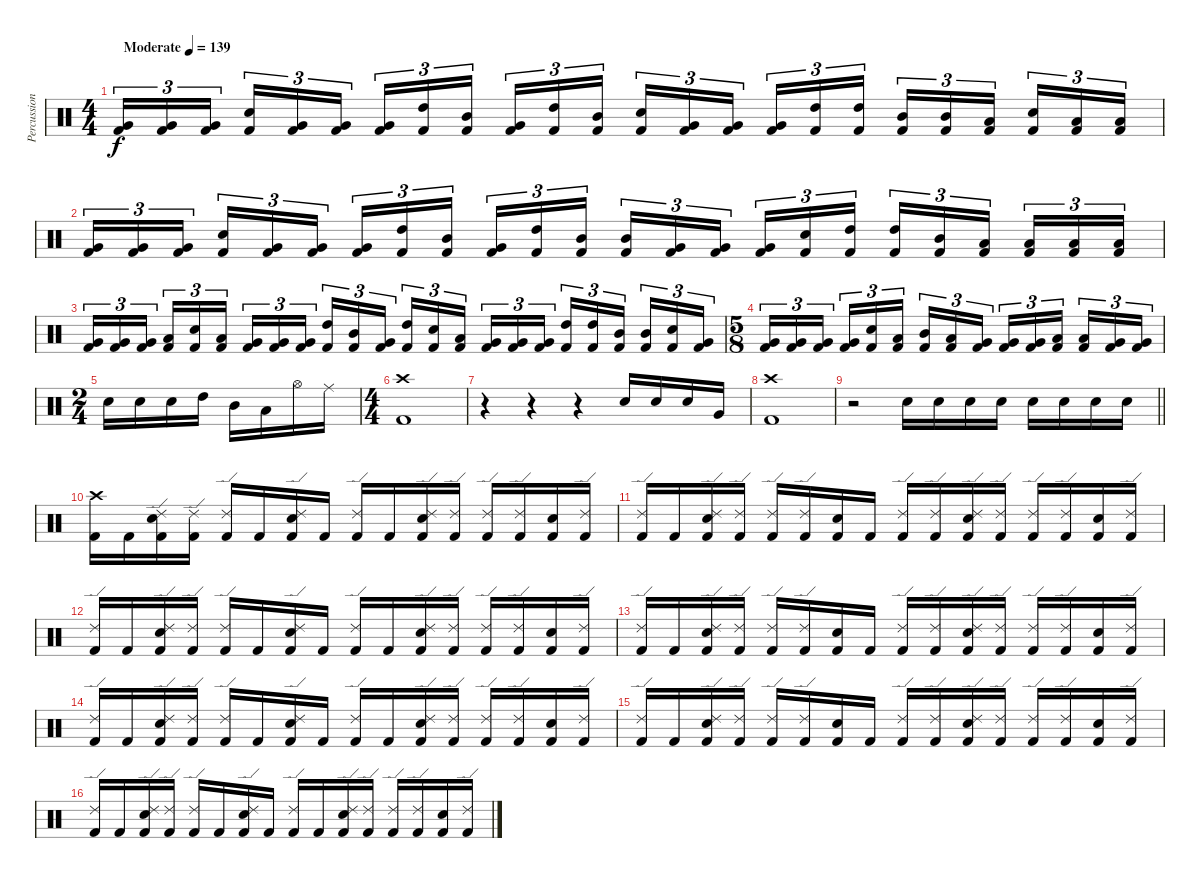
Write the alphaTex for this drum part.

\track ("Percussion" "Percussion") {instrument percussion}
\staff {score}
\articulation defaults
\ts (4 4)
\tempo (139 "Moderate")
\clef neutral
\ks c
("Very Low Tom (hit)" "Kick (hit) 2").16{tu (3 2) dy f} ("Very Low Tom (hit)" "Kick (hit) 2").16{tu (3 2)} ("Very Low Tom (hit)" "Kick (hit) 2").16{tu (3 2) beam splitsecondary} ("Snare (hit) 2" "Kick (hit) 2").16{tu (3 2)} ("Very Low Tom (hit)" "Kick (hit) 2").16{tu (3 2)} ("Very Low Tom (hit)" "Kick (hit) 2").16{tu (3 2)} ("Very Low Tom (hit)" "Kick (hit) 2").16{tu (3 2)} ("High Tom (hit)" "Kick (hit) 2").16{tu (3 2)} ("Mid Tom (hit)" "Kick (hit) 2").16{tu (3 2) beam splitsecondary} ("Very Low Tom (hit)" "Kick (hit) 2").16{tu (3 2)} ("High Tom (hit)" "Kick (hit) 2").16{tu (3 2)} ("Mid Tom (hit)" "Kick (hit) 2").16{tu (3 2)} ("Snare (hit) 2" "Kick (hit) 2").16{tu (3 2)} ("Very Low Tom (hit)" "Kick (hit) 2").16{tu (3 2)} ("Very Low Tom (hit)" "Kick (hit) 2").16{tu (3 2) beam splitsecondary} ("Very Low Tom (hit)" "Kick (hit) 2").16{tu (3 2)} ("High Tom (hit)" "Kick (hit) 2").16{tu (3 2)} ("High Tom (hit)" "Kick (hit) 2").16{tu (3 2)} ("Mid Tom (hit)" "Kick (hit) 2").16{tu (3 2)} ("Mid Tom (hit)" "Kick (hit) 2").16{tu (3 2)} ("Low Tom (hit)" "Kick (hit) 2").16{tu (3 2) beam splitsecondary} ("Snare (hit) 2" "Kick (hit) 2").16{tu (3 2)} ("Low Tom (hit)" "Kick (hit) 2").16{tu (3 2)} ("Low Tom (hit)" "Kick (hit) 2").16{tu (3 2)} |
("Very Low Tom (hit)" "Kick (hit) 2").16{tu (3 2)} ("Very Low Tom (hit)" "Kick (hit) 2").16{tu (3 2)} ("Very Low Tom (hit)" "Kick (hit) 2").16{tu (3 2) beam splitsecondary} ("Snare (hit) 2" "Kick (hit) 2").16{tu (3 2)} ("Very Low Tom (hit)" "Kick (hit) 2").16{tu (3 2)} ("Very Low Tom (hit)" "Kick (hit) 2").16{tu (3 2)} ("Very Low Tom (hit)" "Kick (hit) 2").16{tu (3 2)} ("High Tom (hit)" "Kick (hit) 2").16{tu (3 2)} ("Mid Tom (hit)" "Kick (hit) 2").16{tu (3 2) beam splitsecondary} ("Very Low Tom (hit)" "Kick (hit) 2").16{tu (3 2)} ("High Tom (hit)" "Kick (hit) 2").16{tu (3 2)} ("Mid Tom (hit)" "Kick (hit) 2").16{tu (3 2)} ("Mid Tom (hit)" "Kick (hit) 2").16{tu (3 2)} ("Very Low Tom (hit)" "Kick (hit) 2").16{tu (3 2)} ("Very Low Tom (hit)" "Kick (hit) 2").16{tu (3 2) beam splitsecondary} ("Very Low Tom (hit)" "Kick (hit) 2").16{tu (3 2)} ("Snare (hit) 2" "Kick (hit) 2").16{tu (3 2)} ("High Tom (hit)" "Kick (hit) 2").16{tu (3 2)} ("High Tom (hit)" "Kick (hit) 2").16{tu (3 2)} ("Mid Tom (hit)" "Kick (hit) 2").16{tu (3 2)} ("Low Tom (hit)" "Kick (hit) 2").16{tu (3 2) beam splitsecondary} ("Low Tom (hit)" "Kick (hit) 2").16{tu (3 2)} ("Low Tom (hit)" "Kick (hit) 2").16{tu (3 2)} ("Low Tom (hit)" "Kick (hit) 2").16{tu (3 2)} |
("Very Low Tom (hit)" "Kick (hit) 2").16{tu (3 2)} ("Very Low Tom (hit)" "Kick (hit) 2").16{tu (3 2)} ("Very Low Tom (hit)" "Kick (hit) 2").16{tu (3 2) beam splitsecondary} ("Low Tom (hit)" "Kick (hit) 2").16{tu (3 2)} ("Snare (hit) 2" "Kick (hit) 2").16{tu (3 2)} ("Low Tom (hit)" "Kick (hit) 2").16{tu (3 2)} ("Very Low Tom (hit)" "Kick (hit) 2").16{tu (3 2)} ("Very Low Tom (hit)" "Kick (hit) 2").16{tu (3 2)} ("Very Low Tom (hit)" "Kick (hit) 2").16{tu (3 2) beam splitsecondary} ("High Tom (hit)" "Kick (hit) 2").16{tu (3 2)} ("Mid Tom (hit)" "Kick (hit) 2").16{tu (3 2)} ("Very Low Tom (hit)" "Kick (hit) 2").16{tu (3 2)} ("High Tom (hit)" "Kick (hit) 2").16{tu (3 2)} ("Snare (hit) 2" "Kick (hit) 2").16{tu (3 2)} ("Low Tom (hit)" "Kick (hit) 2").16{tu (3 2) beam splitsecondary} ("Very Low Tom (hit)" "Kick (hit) 2").16{tu (3 2)} ("Very Low Tom (hit)" "Kick (hit) 2").16{tu (3 2)} ("Very Low Tom (hit)" "Kick (hit) 2").16{tu (3 2)} ("High Tom (hit)" "Kick (hit) 2").16{tu (3 2)} ("High Tom (hit)" "Kick (hit) 2").16{tu (3 2)} ("Mid Tom (hit)" "Kick (hit) 2").16{tu (3 2) beam splitsecondary} ("Mid Tom (hit)" "Kick (hit) 2").16{tu (3 2)} ("Snare (hit) 2" "Kick (hit) 2").16{tu (3 2)} ("Very Low Tom (hit)" "Kick (hit) 2").16{tu (3 2)} |
\ts (5 8)
("Very Low Tom (hit)" "Kick (hit) 2").16{tu (3 2)} ("Very Low Tom (hit)" "Kick (hit) 2").16{tu (3 2)} ("Very Low Tom (hit)" "Kick (hit) 2").16{tu (3 2)} ("Very Low Tom (hit)" "Kick (hit) 2").16{tu (3 2)} ("Snare (hit) 2" "Kick (hit) 2").16{tu (3 2)} ("Low Tom (hit)" "Kick (hit) 2").16{tu (3 2)} ("Mid Tom (hit)" "Kick (hit) 2").16{tu (3 2)} ("Low Tom (hit)" "Kick (hit) 2").16{tu (3 2)} ("Very Low Tom (hit)" "Kick (hit) 2").16{tu (3 2)} ("Very Low Tom (hit)" "Kick (hit) 2").16{tu (3 2)} ("Very Low Tom (hit)" "Kick (hit) 2").16{tu (3 2)} ("Low Tom (hit)" "Kick (hit) 2").16{tu (3 2)} ("Low Tom (hit)" "Kick (hit) 2").16{tu (3 2)} ("Very Low Tom (hit)" "Kick (hit) 2").16{tu (3 2)} ("Very Low Tom (hit)" "Kick (hit) 2").16{tu (3 2)} |
\ts (2 4)
"Electric Snare (hit)".16 "Electric Snare (hit)".16 "Electric Snare (hit)".16 "High Tom (hit)".16 "Mid Tom (hit)".16 "Low Tom (hit)".16 "Hi-Hat (open)".16 "Ride (middle)".16 |
\ts (4 4)
("Crash high (hit)" "Kick (hit) 2").1 |
r.4 r.4 r.4 "Electric Snare (hit)".16 "Electric Snare (hit)".16 "Electric Snare (hit)".16 "Very Low Tom (hit)".16 |
("Crash high (hit)" "Kick (hit) 2").1 |
\barLineRight lightlight
r.2 "Electric Snare (hit)".16 "Electric Snare (hit)".16 "Electric Snare (hit)".16 "Electric Snare (hit)".16 "Electric Snare (hit)".16 "Electric Snare (hit)".16 "Electric Snare (hit)".16 "Electric Snare (hit)".16 |
("Crash high (hit)" "Kick (hit) 2").16 "Kick (hit) 2".16 ("Ride (edge) 2" "Electric Snare (hit)" "Kick (hit) 2").16 ("Ride (edge) 2" "Kick (hit) 2").16 ("Ride (edge) 2" "Kick (hit) 2").16 "Kick (hit) 2".16 ("Ride (edge) 2" "Electric Snare (hit)" "Kick (hit) 2").16 "Kick (hit) 2".16 ("Ride (edge) 2" "Kick (hit) 2").16 "Kick (hit) 2".16 ("Ride (edge) 2" "Electric Snare (hit)" "Kick (hit) 2").16 ("Ride (edge) 2" "Kick (hit) 2").16 ("Ride (edge) 2" "Kick (hit) 2").16 ("Ride (edge) 2" "Kick (hit) 2").16 ("Electric Snare (hit)" "Kick (hit) 2").16 ("Ride (edge) 2" "Kick (hit) 2").16 |
("Ride (edge) 2" "Kick (hit) 2").16 "Kick (hit) 2".16 ("Ride (edge) 2" "Electric Snare (hit)" "Kick (hit) 2").16 ("Ride (edge) 2" "Kick (hit) 2").16 ("Ride (edge) 2" "Kick (hit) 2").16 ("Ride (edge) 2" "Kick (hit) 2").16 ("Electric Snare (hit)" "Kick (hit) 2").16 "Kick (hit) 2".16 ("Ride (edge) 2" "Kick (hit) 2").16 ("Ride (edge) 2" "Kick (hit) 2").16 ("Ride (edge) 2" "Electric Snare (hit)" "Kick (hit) 2").16 ("Ride (edge) 2" "Kick (hit) 2").16 ("Ride (edge) 2" "Kick (hit) 2").16 ("Ride (edge) 2" "Kick (hit) 2").16 ("Electric Snare (hit)" "Kick (hit) 2").16 ("Ride (edge) 2" "Kick (hit) 2").16 |
("Ride (edge) 2" "Kick (hit) 2").16 "Kick (hit) 2".16 ("Ride (edge) 2" "Electric Snare (hit)" "Kick (hit) 2").16 ("Ride (edge) 2" "Kick (hit) 2").16 ("Ride (edge) 2" "Kick (hit) 2").16 "Kick (hit) 2".16 ("Ride (edge) 2" "Electric Snare (hit)" "Kick (hit) 2").16 "Kick (hit) 2".16 ("Ride (edge) 2" "Kick (hit) 2").16 "Kick (hit) 2".16 ("Ride (edge) 2" "Electric Snare (hit)" "Kick (hit) 2").16 ("Ride (edge) 2" "Kick (hit) 2").16 ("Ride (edge) 2" "Kick (hit) 2").16 ("Ride (edge) 2" "Kick (hit) 2").16 ("Electric Snare (hit)" "Kick (hit) 2").16 ("Ride (edge) 2" "Kick (hit) 2").16 |
("Ride (edge) 2" "Kick (hit) 2").16 "Kick (hit) 2".16 ("Ride (edge) 2" "Electric Snare (hit)" "Kick (hit) 2").16 ("Ride (edge) 2" "Kick (hit) 2").16 ("Ride (edge) 2" "Kick (hit) 2").16 ("Ride (edge) 2" "Kick (hit) 2").16 ("Electric Snare (hit)" "Kick (hit) 2").16 "Kick (hit) 2".16 ("Ride (edge) 2" "Kick (hit) 2").16 ("Ride (edge) 2" "Kick (hit) 2").16 ("Ride (edge) 2" "Electric Snare (hit)" "Kick (hit) 2").16 ("Ride (edge) 2" "Kick (hit) 2").16 ("Ride (edge) 2" "Kick (hit) 2").16 ("Ride (edge) 2" "Kick (hit) 2").16 ("Electric Snare (hit)" "Kick (hit) 2").16 ("Ride (edge) 2" "Kick (hit) 2").16 |
("Ride (edge) 2" "Kick (hit) 2").16 "Kick (hit) 2".16 ("Ride (edge) 2" "Electric Snare (hit)" "Kick (hit) 2").16 ("Ride (edge) 2" "Kick (hit) 2").16 ("Ride (edge) 2" "Kick (hit) 2").16 "Kick (hit) 2".16 ("Ride (edge) 2" "Electric Snare (hit)" "Kick (hit) 2").16 "Kick (hit) 2".16 ("Ride (edge) 2" "Kick (hit) 2").16 "Kick (hit) 2".16 ("Ride (edge) 2" "Electric Snare (hit)" "Kick (hit) 2").16 ("Ride (edge) 2" "Kick (hit) 2").16 ("Ride (edge) 2" "Kick (hit) 2").16 ("Ride (edge) 2" "Kick (hit) 2").16 ("Electric Snare (hit)" "Kick (hit) 2").16 ("Ride (edge) 2" "Kick (hit) 2").16 |
("Ride (edge) 2" "Kick (hit) 2").16 "Kick (hit) 2".16 ("Ride (edge) 2" "Electric Snare (hit)" "Kick (hit) 2").16 ("Ride (edge) 2" "Kick (hit) 2").16 ("Ride (edge) 2" "Kick (hit) 2").16 ("Ride (edge) 2" "Kick (hit) 2").16 ("Electric Snare (hit)" "Kick (hit) 2").16 "Kick (hit) 2".16 ("Ride (edge) 2" "Kick (hit) 2").16 ("Ride (edge) 2" "Kick (hit) 2").16 ("Ride (edge) 2" "Electric Snare (hit)" "Kick (hit) 2").16 ("Ride (edge) 2" "Kick (hit) 2").16 ("Ride (edge) 2" "Kick (hit) 2").16 ("Ride (edge) 2" "Kick (hit) 2").16 ("Electric Snare (hit)" "Kick (hit) 2").16 ("Ride (edge) 2" "Kick (hit) 2").16 |
("Ride (edge) 2" "Kick (hit) 2").16 "Kick (hit) 2".16 ("Ride (edge) 2" "Electric Snare (hit)" "Kick (hit) 2").16 ("Ride (edge) 2" "Kick (hit) 2").16 ("Ride (edge) 2" "Kick (hit) 2").16 "Kick (hit) 2".16 ("Ride (edge) 2" "Electric Snare (hit)" "Kick (hit) 2").16 "Kick (hit) 2".16 ("Ride (edge) 2" "Kick (hit) 2").16 "Kick (hit) 2".16 ("Ride (edge) 2" "Electric Snare (hit)" "Kick (hit) 2").16 ("Ride (edge) 2" "Kick (hit) 2").16 ("Ride (edge) 2" "Kick (hit) 2").16 ("Ride (edge) 2" "Kick (hit) 2").16 ("Electric Snare (hit)" "Kick (hit) 2").16 ("Ride (edge) 2" "Kick (hit) 2").16
